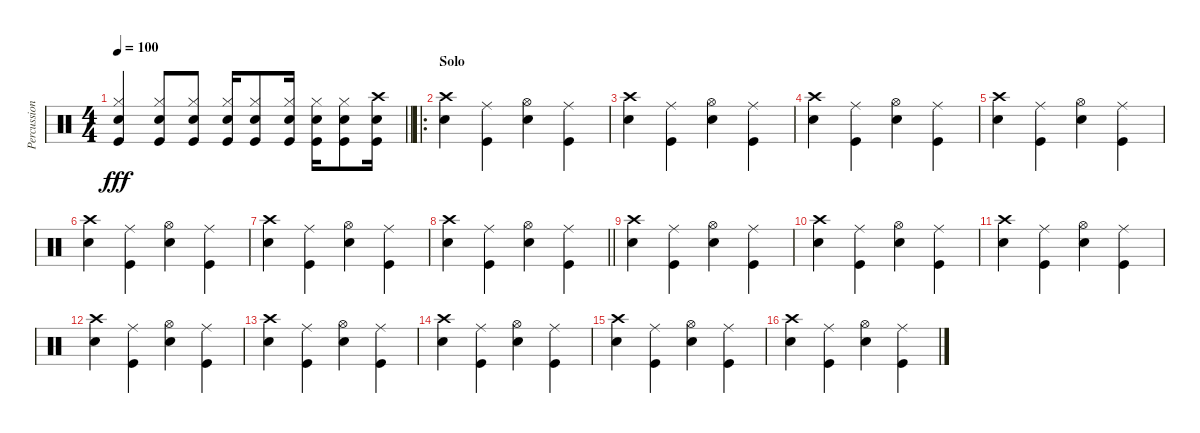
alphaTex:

\track ("Percussion" "Percussion") {solo instrument percussion}
\staff {score}
\articulation defaults
\ts (4 4)
\tempo 100
\clef neutral
\barLineRight lightlight
\ks c
("Snare (hit) 2" "Hi-Hat (closed)" "Kick (hit)").4{dy fff} ("Hi-Hat (closed)" "Snare (hit) 2" "Kick (hit)").8 ("Kick (hit)" "Snare (hit) 2" "Hi-Hat (closed)").8 ("Hi-Hat (closed)" "Snare (hit) 2" "Kick (hit)").16 ("Snare (hit) 2" "Kick (hit)" "Hi-Hat (closed)").8 ("Hi-Hat (closed)" "Snare (hit) 2" "Kick (hit)").16 ("Hi-Hat (closed)" "Snare (hit) 2" "Kick (hit)").16 ("Kick (hit)" "Hi-Hat (closed)" "Snare (hit) 2").8 ("Crash high (hit)" "Snare (hit) 2" "Kick (hit)").16 |
\ro
\section ("" "Solo")
("Snare (hit) 2" "Crash high (hit)").4 ("Ride (middle)" "Kick (hit)").4 ("Snare (hit) 2" "Hi-Hat (open)").4 ("Ride (middle)" "Kick (hit)").4 |
("Snare (hit) 2" "Crash high (hit)").4 ("Ride (middle)" "Kick (hit)").4 ("Snare (hit) 2" "Hi-Hat (open)").4 ("Ride (middle)" "Kick (hit)").4 |
("Snare (hit) 2" "Crash high (hit)").4 ("Ride (middle)" "Kick (hit)").4 ("Snare (hit) 2" "Hi-Hat (open)").4 ("Ride (middle)" "Kick (hit)").4 |
("Snare (hit) 2" "Crash high (hit)").4 ("Ride (middle)" "Kick (hit)").4 ("Snare (hit) 2" "Hi-Hat (open)").4 ("Ride (middle)" "Kick (hit)").4 |
("Snare (hit) 2" "Crash high (hit)").4 ("Ride (middle)" "Kick (hit)").4 ("Snare (hit) 2" "Hi-Hat (open)").4 ("Ride (middle)" "Kick (hit)").4 |
("Snare (hit) 2" "Crash high (hit)").4 ("Ride (middle)" "Kick (hit)").4 ("Snare (hit) 2" "Hi-Hat (open)").4 ("Ride (middle)" "Kick (hit)").4 |
\barLineRight lightlight
("Snare (hit) 2" "Crash high (hit)").4 ("Ride (middle)" "Kick (hit)").4 ("Snare (hit) 2" "Hi-Hat (open)").4 ("Ride (middle)" "Kick (hit)").4 |
("Snare (hit) 2" "Crash high (hit)").4 ("Ride (middle)" "Kick (hit)").4 ("Snare (hit) 2" "Hi-Hat (open)").4 ("Ride (middle)" "Kick (hit)").4 |
("Snare (hit) 2" "Crash high (hit)").4 ("Ride (middle)" "Kick (hit)").4 ("Snare (hit) 2" "Hi-Hat (open)").4 ("Ride (middle)" "Kick (hit)").4 |
("Snare (hit) 2" "Crash high (hit)").4 ("Ride (middle)" "Kick (hit)").4 ("Snare (hit) 2" "Hi-Hat (open)").4 ("Ride (middle)" "Kick (hit)").4 |
("Snare (hit) 2" "Crash high (hit)").4 ("Ride (middle)" "Kick (hit)").4 ("Snare (hit) 2" "Hi-Hat (open)").4 ("Ride (middle)" "Kick (hit)").4 |
("Snare (hit) 2" "Crash high (hit)").4 ("Ride (middle)" "Kick (hit)").4 ("Snare (hit) 2" "Hi-Hat (open)").4 ("Ride (middle)" "Kick (hit)").4 |
("Snare (hit) 2" "Crash high (hit)").4 ("Ride (middle)" "Kick (hit)").4 ("Snare (hit) 2" "Hi-Hat (open)").4 ("Ride (middle)" "Kick (hit)").4 |
("Snare (hit) 2" "Crash high (hit)").4 ("Ride (middle)" "Kick (hit)").4 ("Snare (hit) 2" "Hi-Hat (open)").4 ("Ride (middle)" "Kick (hit)").4 |
("Snare (hit) 2" "Crash high (hit)").4 ("Ride (middle)" "Kick (hit)").4 ("Snare (hit) 2" "Hi-Hat (open)").4 ("Ride (middle)" "Kick (hit)").4
